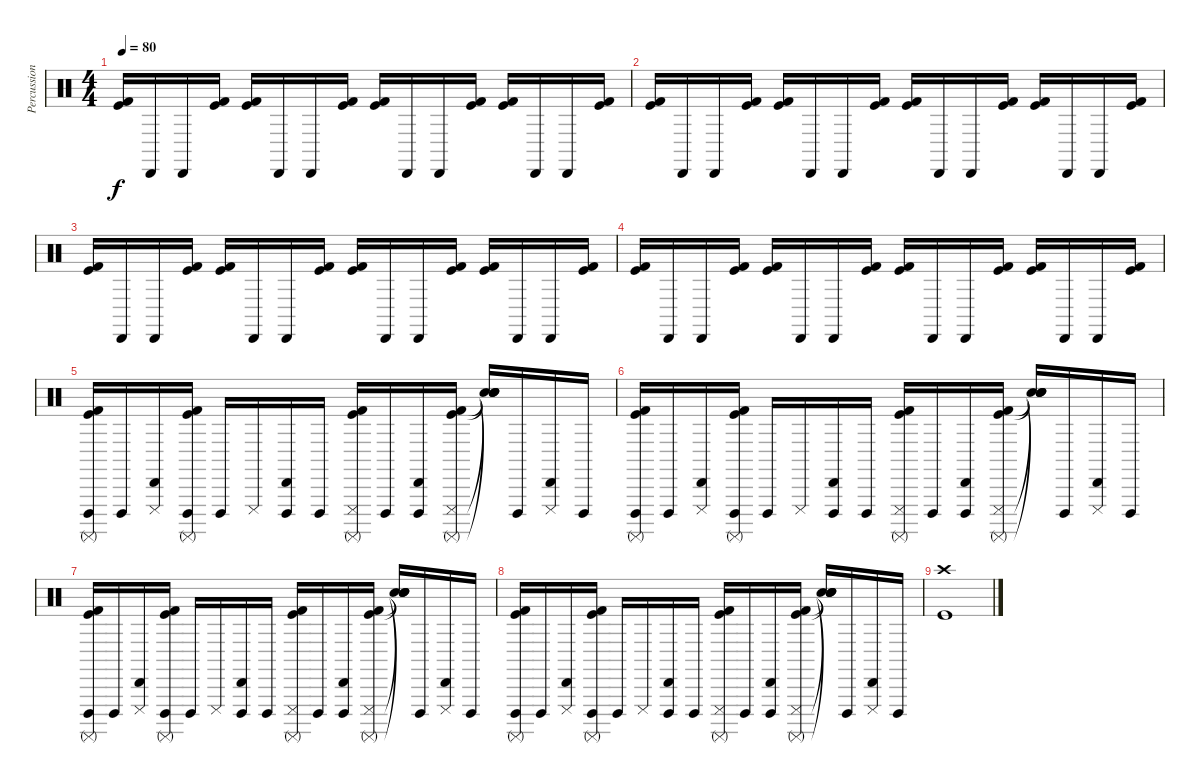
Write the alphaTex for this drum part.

\track ("Percussions" "Percussion") {instrument percussion}
\staff {score}
\articulation defaults
\ts (4 4)
\tempo 80
\clef neutral
\ks c
("Kick (hit) 2" "Kick (hit)").16{dy f} "Cabasa (hit)".16 "Cabasa (hit)".16 ("Kick (hit) 2" "Kick (hit)").16 ("Kick (hit) 2" "Kick (hit)").16 "Cabasa (hit)".16 "Cabasa (hit)".16 ("Kick (hit) 2" "Kick (hit)").16 ("Kick (hit) 2" "Kick (hit)").16 "Cabasa (hit)".16 "Cabasa (hit)".16 ("Kick (hit) 2" "Kick (hit)").16 ("Kick (hit) 2" "Kick (hit)").16 "Cabasa (hit)".16 "Cabasa (hit)".16 ("Kick (hit) 2" "Kick (hit)").16 |
("Kick (hit) 2" "Kick (hit)").16 "Cabasa (hit)".16 "Cabasa (hit)".16 ("Kick (hit) 2" "Kick (hit)").16 ("Kick (hit) 2" "Kick (hit)").16 "Cabasa (hit)".16 "Cabasa (hit)".16 ("Kick (hit) 2" "Kick (hit)").16 ("Kick (hit) 2" "Kick (hit)").16 "Cabasa (hit)".16 "Cabasa (hit)".16 ("Kick (hit) 2" "Kick (hit)").16 ("Kick (hit) 2" "Kick (hit)").16 "Cabasa (hit)".16 "Cabasa (hit)".16 ("Kick (hit) 2" "Kick (hit)").16 |
("Kick (hit) 2" "Kick (hit)").16 "Cabasa (hit)".16 "Cabasa (hit)".16 ("Kick (hit) 2" "Kick (hit)").16 ("Kick (hit) 2" "Kick (hit)").16 "Cabasa (hit)".16 "Cabasa (hit)".16 ("Kick (hit) 2" "Kick (hit)").16 ("Kick (hit) 2" "Kick (hit)").16 "Cabasa (hit)".16 "Cabasa (hit)".16 ("Kick (hit) 2" "Kick (hit)").16 ("Kick (hit) 2" "Kick (hit)").16 "Cabasa (hit)".16 "Cabasa (hit)".16 ("Kick (hit) 2" "Kick (hit)").16 |
("Kick (hit) 2" "Kick (hit)").16 "Cabasa (hit)".16 "Cabasa (hit)".16 ("Kick (hit) 2" "Kick (hit)").16 ("Kick (hit) 2" "Kick (hit)").16 "Cabasa (hit)".16 "Cabasa (hit)".16 ("Kick (hit) 2" "Kick (hit)").16 ("Kick (hit) 2" "Kick (hit)").16 "Cabasa (hit)".16 "Cabasa (hit)".16 ("Kick (hit) 2" "Kick (hit)").16 ("Kick (hit) 2" "Kick (hit)").16 "Cabasa (hit)".16 "Cabasa (hit)".16 ("Kick (hit) 2" "Kick (hit)").16 |
("Cuica (open)" "Kick (hit) 2" "Kick (hit)" "Surdo (mute)").16 "Cuica (open)".16 ("Cuica (mute)" "Cabasa (hit)").16 ("Cuica (open)" "Kick (hit) 2" "Kick (hit)" "Surdo (mute)").16 "Cuica (open)".16 "Cuica (mute)".16 ("Cuica (open)" "Cabasa (hit)").16 "Cuica (open)".16 ("Cuica (mute)" "Kick (hit) 2" "Kick (hit)" "Surdo (mute)").16 "Cuica (open)".16 ("Cuica (open)" "Cabasa (hit)").16 ("Cuica (mute)" "Kick (hit) 2" "Kick (hit)" "Surdo (mute)").16 ("Snare (hit)"{t} "Snare (hit)"{t} "Snare (hit)"{t} "Snare (hit)"{t}).16 "Cuica (open)".16 ("Cuica (mute)" "Cabasa (hit)").16 "Cuica (open)".16 |
("Cuica (open)" "Kick (hit) 2" "Kick (hit)" "Surdo (mute)").16 "Cuica (open)".16 ("Cuica (mute)" "Cabasa (hit)").16 ("Cuica (open)" "Kick (hit) 2" "Kick (hit)" "Surdo (mute)").16 "Cuica (open)".16 "Cuica (mute)".16 ("Cuica (open)" "Cabasa (hit)").16 "Cuica (open)".16 ("Cuica (mute)" "Kick (hit) 2" "Kick (hit)" "Surdo (mute)").16 "Cuica (open)".16 ("Cuica (open)" "Cabasa (hit)").16 ("Cuica (mute)" "Kick (hit) 2" "Kick (hit)" "Surdo (mute)").16 ("Snare (hit)"{t} "Snare (hit)"{t} "Snare (hit)"{t} "Snare (hit)"{t}).16 "Cuica (open)".16 ("Cuica (mute)" "Cabasa (hit)").16 "Cuica (open)".16 |
("Cuica (open)" "Kick (hit) 2" "Kick (hit)" "Surdo (mute)").16 "Cuica (open)".16 ("Cuica (mute)" "Cabasa (hit)").16 ("Cuica (open)" "Kick (hit) 2" "Kick (hit)" "Surdo (mute)").16 "Cuica (open)".16 "Cuica (mute)".16 ("Cuica (open)" "Cabasa (hit)").16 "Cuica (open)".16 ("Cuica (mute)" "Kick (hit) 2" "Kick (hit)" "Surdo (mute)").16 "Cuica (open)".16 ("Cuica (open)" "Cabasa (hit)").16 ("Cuica (mute)" "Kick (hit) 2" "Kick (hit)" "Surdo (mute)").16 ("Snare (hit)"{t} "Snare (hit)"{t} "Snare (hit)"{t} "Snare (hit)"{t}).16 "Cuica (open)".16 ("Cuica (mute)" "Cabasa (hit)").16 "Cuica (open)".16 |
("Cuica (open)" "Kick (hit) 2" "Kick (hit)" "Surdo (mute)").16 "Cuica (open)".16 ("Cuica (mute)" "Cabasa (hit)").16 ("Cuica (open)" "Kick (hit) 2" "Kick (hit)" "Surdo (mute)").16 "Cuica (open)".16 "Cuica (mute)".16 ("Cuica (open)" "Cabasa (hit)").16 "Cuica (open)".16 ("Cuica (mute)" "Kick (hit) 2" "Kick (hit)" "Surdo (mute)").16 "Cuica (open)".16 ("Cuica (open)" "Cabasa (hit)").16 ("Cuica (mute)" "Kick (hit) 2" "Kick (hit)" "Surdo (mute)").16 ("Snare (hit)"{t} "Snare (hit)"{t} "Snare (hit)"{t} "Snare (hit)"{t}).16 "Cuica (open)".16 ("Cuica (mute)" "Cabasa (hit)").16 "Cuica (open)".16 |
("Crash high (hit)" "Kick (hit)").1
